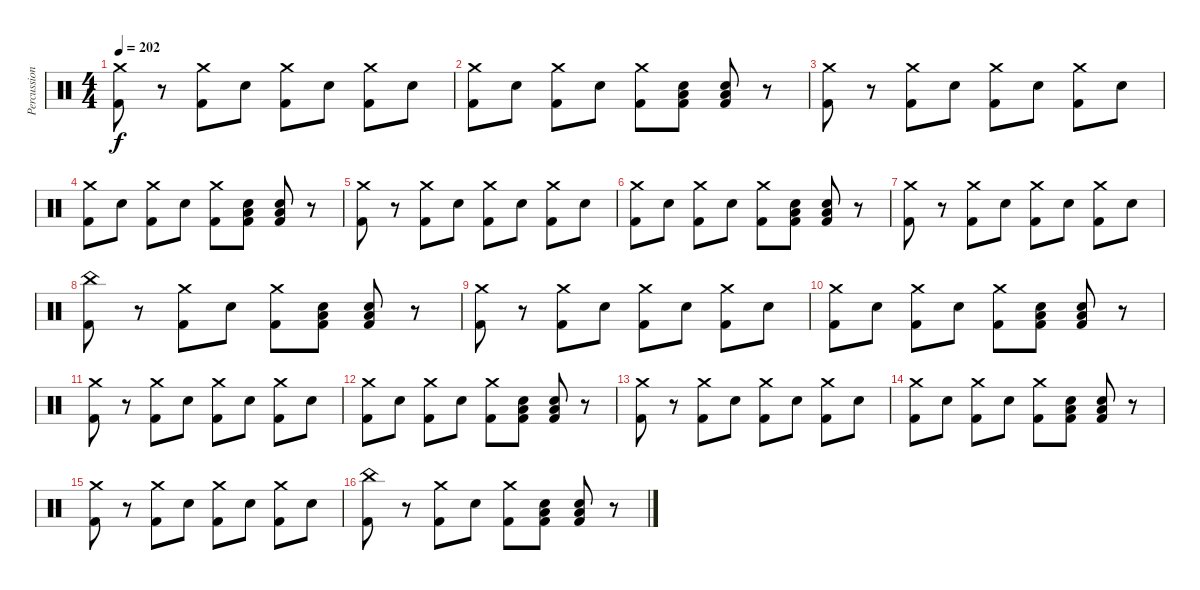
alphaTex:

\track ("Percussion" "Percussion") {instrument percussion}
\staff {score}
\articulation defaults
\ts (4 4)
\tempo 202
\clef neutral
\ks c
("Crash medium (hit)" "Kick (hit) 2").8{dy f} r.8 ("Crash medium (hit)" "Kick (hit) 2").8 "Electric Snare (hit)".8 ("Crash medium (hit)" "Kick (hit) 2").8 "Electric Snare (hit)".8 ("Crash medium (hit)" "Kick (hit) 2").8 "Electric Snare (hit)".8 |
("Crash medium (hit)" "Kick (hit) 2").8 "Electric Snare (hit)".8 ("Crash medium (hit)" "Kick (hit) 2").8 "Electric Snare (hit)".8 ("Crash medium (hit)" "Kick (hit) 2").8 ("Low Tom (hit)" "Electric Snare (hit)" "Kick (hit) 2").8 ("Low Tom (hit)" "Electric Snare (hit)" "Kick (hit) 2").8 r.8 |
("Crash medium (hit)" "Kick (hit) 2").8 r.8 ("Crash medium (hit)" "Kick (hit) 2").8 "Electric Snare (hit)".8 ("Crash medium (hit)" "Kick (hit) 2").8 "Electric Snare (hit)".8 ("Crash medium (hit)" "Kick (hit) 2").8 "Electric Snare (hit)".8 |
("Crash medium (hit)" "Kick (hit) 2").8 "Electric Snare (hit)".8 ("Crash medium (hit)" "Kick (hit) 2").8 "Electric Snare (hit)".8 ("Crash medium (hit)" "Kick (hit) 2").8 ("Low Tom (hit)" "Electric Snare (hit)" "Kick (hit) 2").8 ("Low Tom (hit)" "Electric Snare (hit)" "Kick (hit) 2").8 r.8 |
("Crash medium (hit)" "Kick (hit) 2").8 r.8 ("Crash medium (hit)" "Kick (hit) 2").8 "Electric Snare (hit)".8 ("Crash medium (hit)" "Kick (hit) 2").8 "Electric Snare (hit)".8 ("Crash medium (hit)" "Kick (hit) 2").8 "Electric Snare (hit)".8 |
("Crash medium (hit)" "Kick (hit) 2").8 "Electric Snare (hit)".8 ("Crash medium (hit)" "Kick (hit) 2").8 "Electric Snare (hit)".8 ("Crash medium (hit)" "Kick (hit) 2").8 ("Low Tom (hit)" "Electric Snare (hit)" "Kick (hit) 2").8 ("Low Tom (hit)" "Electric Snare (hit)" "Kick (hit) 2").8 r.8 |
("Crash medium (hit)" "Kick (hit) 2").8 r.8 ("Crash medium (hit)" "Kick (hit) 2").8 "Electric Snare (hit)".8 ("Crash medium (hit)" "Kick (hit) 2").8 "Electric Snare (hit)".8 ("Crash medium (hit)" "Kick (hit) 2").8 "Electric Snare (hit)".8 |
("China (hit)" "Kick (hit) 2").8 r.8 ("Crash medium (hit)" "Kick (hit) 2").8 "Electric Snare (hit)".8 ("Crash medium (hit)" "Kick (hit) 2").8 ("Low Tom (hit)" "Electric Snare (hit)" "Kick (hit) 2").8 ("Low Tom (hit)" "Electric Snare (hit)" "Kick (hit) 2").8 r.8 |
("Crash medium (hit)" "Kick (hit) 2").8 r.8 ("Crash medium (hit)" "Kick (hit) 2").8 "Electric Snare (hit)".8 ("Crash medium (hit)" "Kick (hit) 2").8 "Electric Snare (hit)".8 ("Crash medium (hit)" "Kick (hit) 2").8 "Electric Snare (hit)".8 |
("Crash medium (hit)" "Kick (hit) 2").8 "Electric Snare (hit)".8 ("Crash medium (hit)" "Kick (hit) 2").8 "Electric Snare (hit)".8 ("Crash medium (hit)" "Kick (hit) 2").8 ("Low Tom (hit)" "Electric Snare (hit)" "Kick (hit) 2").8 ("Low Tom (hit)" "Electric Snare (hit)" "Kick (hit) 2").8 r.8 |
("Crash medium (hit)" "Kick (hit) 2").8 r.8 ("Crash medium (hit)" "Kick (hit) 2").8 "Electric Snare (hit)".8 ("Crash medium (hit)" "Kick (hit) 2").8 "Electric Snare (hit)".8 ("Crash medium (hit)" "Kick (hit) 2").8 "Electric Snare (hit)".8 |
("Crash medium (hit)" "Kick (hit) 2").8 "Electric Snare (hit)".8 ("Crash medium (hit)" "Kick (hit) 2").8 "Electric Snare (hit)".8 ("Crash medium (hit)" "Kick (hit) 2").8 ("Low Tom (hit)" "Electric Snare (hit)" "Kick (hit) 2").8 ("Low Tom (hit)" "Electric Snare (hit)" "Kick (hit) 2").8 r.8 |
("Crash medium (hit)" "Kick (hit) 2").8 r.8 ("Crash medium (hit)" "Kick (hit) 2").8 "Electric Snare (hit)".8 ("Crash medium (hit)" "Kick (hit) 2").8 "Electric Snare (hit)".8 ("Crash medium (hit)" "Kick (hit) 2").8 "Electric Snare (hit)".8 |
("Crash medium (hit)" "Kick (hit) 2").8 "Electric Snare (hit)".8 ("Crash medium (hit)" "Kick (hit) 2").8 "Electric Snare (hit)".8 ("Crash medium (hit)" "Kick (hit) 2").8 ("Low Tom (hit)" "Electric Snare (hit)" "Kick (hit) 2").8 ("Low Tom (hit)" "Electric Snare (hit)" "Kick (hit) 2").8 r.8 |
("Crash medium (hit)" "Kick (hit) 2").8 r.8 ("Crash medium (hit)" "Kick (hit) 2").8 "Electric Snare (hit)".8 ("Crash medium (hit)" "Kick (hit) 2").8 "Electric Snare (hit)".8 ("Crash medium (hit)" "Kick (hit) 2").8 "Electric Snare (hit)".8 |
("China (hit)" "Kick (hit) 2").8 r.8 ("Crash medium (hit)" "Kick (hit) 2").8 "Electric Snare (hit)".8 ("Crash medium (hit)" "Kick (hit) 2").8 ("Low Tom (hit)" "Electric Snare (hit)" "Kick (hit) 2").8 ("Low Tom (hit)" "Electric Snare (hit)" "Kick (hit) 2").8 r.8
